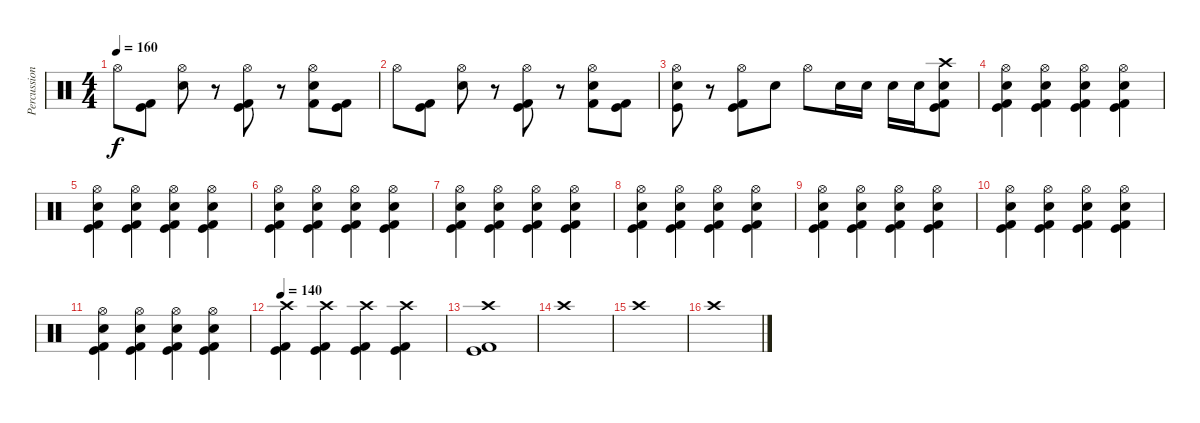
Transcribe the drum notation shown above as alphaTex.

\track ("Percussions" "Percussion") {instrument percussion}
\staff {score}
\articulation defaults
\ts (4 4)
\tempo 160
\clef neutral
\ks c "Hi-Hat (open)".8{dy f}
("Kick (hit) 2" "Kick (hit)").8 ("Snare (hit) 2" "Hi-Hat (open)").8 r.8 ("Kick (hit) 2" "Kick (hit)" "Hi-Hat (open)").8 r.8 ("Kick (hit) 2" "Snare (hit) 2" "Hi-Hat (open)").8 ("Kick (hit) 2" "Kick (hit)").8 |
"Hi-Hat (open)".8 ("Kick (hit) 2" "Kick (hit)").8 ("Snare (hit) 2" "Hi-Hat (open)").8 r.8 ("Kick (hit) 2" "Kick (hit)" "Hi-Hat (open)").8 r.8 ("Kick (hit) 2" "Snare (hit) 2" "Hi-Hat (open)").8 ("Kick (hit) 2" "Kick (hit)").8 |
("Snare (hit) 2" "Kick (hit)" "Hi-Hat (open)").8 r.8 ("Kick (hit) 2" "Kick (hit)" "Hi-Hat (open)").8 "Snare (hit) 2".8 "Hi-Hat (open)".8 "Snare (hit) 2".16 "Snare (hit) 2".16 "Snare (hit) 2".16 "Snare (hit) 2".16 ("Kick (hit) 2" "Kick (hit)" "Snare (hit) 2" "Crash high (hit)").8 |
("Snare (hit) 2" "Kick (hit)" "Kick (hit) 2" "Hi-Hat (open)").4 ("Snare (hit) 2" "Kick (hit)" "Kick (hit) 2" "Hi-Hat (open)").4 ("Snare (hit) 2" "Kick (hit)" "Kick (hit) 2" "Hi-Hat (open)").4 ("Snare (hit) 2" "Kick (hit)" "Kick (hit) 2" "Hi-Hat (open)").4 |
("Snare (hit) 2" "Kick (hit)" "Kick (hit) 2" "Hi-Hat (open)").4 ("Snare (hit) 2" "Kick (hit)" "Kick (hit) 2" "Hi-Hat (open)").4 ("Snare (hit) 2" "Kick (hit)" "Kick (hit) 2" "Hi-Hat (open)").4 ("Snare (hit) 2" "Kick (hit)" "Kick (hit) 2" "Hi-Hat (open)").4 |
("Snare (hit) 2" "Kick (hit)" "Kick (hit) 2" "Hi-Hat (open)").4 ("Snare (hit) 2" "Kick (hit)" "Kick (hit) 2" "Hi-Hat (open)").4 ("Snare (hit) 2" "Kick (hit)" "Kick (hit) 2" "Hi-Hat (open)").4 ("Snare (hit) 2" "Kick (hit)" "Kick (hit) 2" "Hi-Hat (open)").4 |
("Snare (hit) 2" "Kick (hit)" "Kick (hit) 2" "Hi-Hat (open)").4 ("Snare (hit) 2" "Kick (hit)" "Kick (hit) 2" "Hi-Hat (open)").4 ("Snare (hit) 2" "Kick (hit)" "Kick (hit) 2" "Hi-Hat (open)").4 ("Snare (hit) 2" "Kick (hit)" "Kick (hit) 2" "Hi-Hat (open)").4 |
("Snare (hit) 2" "Kick (hit)" "Kick (hit) 2" "Hi-Hat (open)").4 ("Snare (hit) 2" "Kick (hit)" "Kick (hit) 2" "Hi-Hat (open)").4 ("Snare (hit) 2" "Kick (hit)" "Kick (hit) 2" "Hi-Hat (open)").4 ("Snare (hit) 2" "Kick (hit)" "Kick (hit) 2" "Hi-Hat (open)").4 |
("Snare (hit) 2" "Kick (hit)" "Kick (hit) 2" "Hi-Hat (open)").4 ("Snare (hit) 2" "Kick (hit)" "Kick (hit) 2" "Hi-Hat (open)").4 ("Snare (hit) 2" "Kick (hit)" "Kick (hit) 2" "Hi-Hat (open)").4 ("Snare (hit) 2" "Kick (hit)" "Kick (hit) 2" "Hi-Hat (open)").4 |
("Snare (hit) 2" "Kick (hit)" "Kick (hit) 2" "Hi-Hat (open)").4 ("Snare (hit) 2" "Kick (hit)" "Kick (hit) 2" "Hi-Hat (open)").4 ("Snare (hit) 2" "Kick (hit)" "Kick (hit) 2" "Hi-Hat (open)").4 ("Snare (hit) 2" "Kick (hit)" "Kick (hit) 2" "Hi-Hat (open)").4 |
("Snare (hit) 2" "Kick (hit)" "Kick (hit) 2" "Hi-Hat (open)").4 ("Snare (hit) 2" "Kick (hit)" "Kick (hit) 2" "Hi-Hat (open)").4 ("Snare (hit) 2" "Kick (hit)" "Kick (hit) 2" "Hi-Hat (open)").4 ("Snare (hit) 2" "Kick (hit)" "Kick (hit) 2" "Hi-Hat (open)").4 |
\tempo 140
("Crash high (hit)" "Kick (hit)" "Kick (hit) 2").4 ("Crash high (hit)" "Kick (hit)" "Kick (hit) 2").4 ("Crash high (hit)" "Kick (hit)" "Kick (hit) 2").4 ("Crash high (hit)" "Kick (hit)" "Kick (hit) 2").4 |
("Crash high (hit)" "Kick (hit)" "Kick (hit) 2").1 |
"Crash high (hit)".1 |
"Crash high (hit)".1 |
"Crash high (hit)".1
